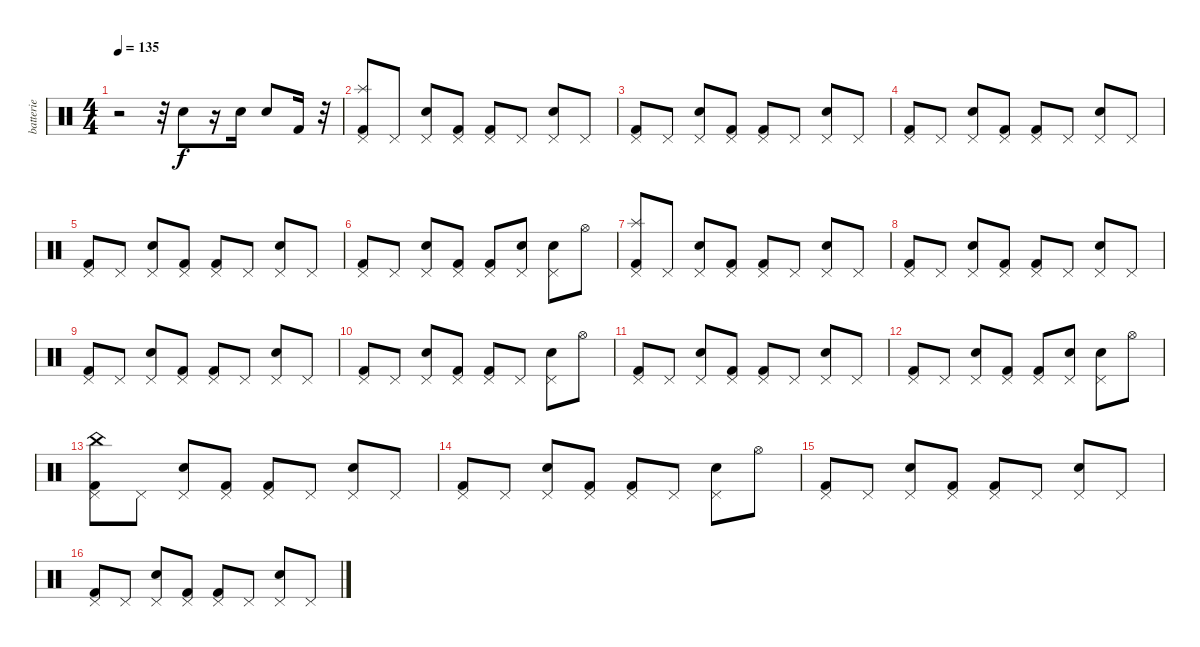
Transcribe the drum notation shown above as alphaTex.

\track ("batterie" "batterie") {instrument percussion}
\staff {score}
\articulation defaults
\ts (4 4)
\tempo 135
\clef neutral
\ks c
r.2{dy f} r.32 "Snare (hit) 2".8 r.16 "Snare (hit) 2".16 "Snare (hit) 2".8 "Kick (hit) 2".16 r.32 |
("Splash (hit)" "Pedal Hi-Hat (hit)" "Kick (hit) 2").8 "Pedal Hi-Hat (hit)".8 ("Pedal Hi-Hat (hit)" "Snare (hit) 2").8 ("Pedal Hi-Hat (hit)" "Kick (hit) 2").8 ("Pedal Hi-Hat (hit)" "Kick (hit) 2").8 "Pedal Hi-Hat (hit)".8 ("Pedal Hi-Hat (hit)" "Snare (hit) 2").8 "Pedal Hi-Hat (hit)".8 |
("Pedal Hi-Hat (hit)" "Kick (hit) 2").8 "Pedal Hi-Hat (hit)".8 ("Pedal Hi-Hat (hit)" "Snare (hit) 2").8 ("Pedal Hi-Hat (hit)" "Kick (hit) 2").8 ("Pedal Hi-Hat (hit)" "Kick (hit) 2").8 "Pedal Hi-Hat (hit)".8 ("Pedal Hi-Hat (hit)" "Snare (hit) 2").8 "Pedal Hi-Hat (hit)".8 |
("Pedal Hi-Hat (hit)" "Kick (hit) 2").8 "Pedal Hi-Hat (hit)".8 ("Pedal Hi-Hat (hit)" "Snare (hit) 2").8 ("Pedal Hi-Hat (hit)" "Kick (hit) 2").8 ("Pedal Hi-Hat (hit)" "Kick (hit) 2").8 "Pedal Hi-Hat (hit)".8 ("Pedal Hi-Hat (hit)" "Snare (hit) 2").8 "Pedal Hi-Hat (hit)".8 |
("Pedal Hi-Hat (hit)" "Kick (hit) 2").8 "Pedal Hi-Hat (hit)".8 ("Pedal Hi-Hat (hit)" "Snare (hit) 2").8 ("Pedal Hi-Hat (hit)" "Kick (hit) 2").8 ("Pedal Hi-Hat (hit)" "Kick (hit) 2").8 "Pedal Hi-Hat (hit)".8 ("Pedal Hi-Hat (hit)" "Snare (hit) 2").8 "Pedal Hi-Hat (hit)".8 |
("Pedal Hi-Hat (hit)" "Kick (hit) 2").8 "Pedal Hi-Hat (hit)".8 ("Pedal Hi-Hat (hit)" "Snare (hit) 2").8 ("Pedal Hi-Hat (hit)" "Kick (hit) 2").8 ("Pedal Hi-Hat (hit)" "Kick (hit) 2").8 ("Pedal Hi-Hat (hit)" "Snare (hit) 2").8 ("Pedal Hi-Hat (hit)" "Snare (hit) 2").8 "Hi-Hat (open)".8 |
("Splash (hit)" "Pedal Hi-Hat (hit)" "Kick (hit) 2").8 "Pedal Hi-Hat (hit)".8 ("Pedal Hi-Hat (hit)" "Snare (hit) 2").8 ("Pedal Hi-Hat (hit)" "Kick (hit) 2").8 ("Pedal Hi-Hat (hit)" "Kick (hit) 2").8 "Pedal Hi-Hat (hit)".8 ("Pedal Hi-Hat (hit)" "Snare (hit) 2").8 "Pedal Hi-Hat (hit)".8 |
("Pedal Hi-Hat (hit)" "Kick (hit) 2").8 "Pedal Hi-Hat (hit)".8 ("Pedal Hi-Hat (hit)" "Snare (hit) 2").8 ("Pedal Hi-Hat (hit)" "Kick (hit) 2").8 ("Pedal Hi-Hat (hit)" "Kick (hit) 2").8 "Pedal Hi-Hat (hit)".8 ("Pedal Hi-Hat (hit)" "Snare (hit) 2").8 "Pedal Hi-Hat (hit)".8 |
("Pedal Hi-Hat (hit)" "Kick (hit) 2").8 "Pedal Hi-Hat (hit)".8 ("Pedal Hi-Hat (hit)" "Snare (hit) 2").8 ("Pedal Hi-Hat (hit)" "Kick (hit) 2").8 ("Pedal Hi-Hat (hit)" "Kick (hit) 2").8 "Pedal Hi-Hat (hit)".8 ("Pedal Hi-Hat (hit)" "Snare (hit) 2").8 "Pedal Hi-Hat (hit)".8 |
("Pedal Hi-Hat (hit)" "Kick (hit) 2").8 "Pedal Hi-Hat (hit)".8 ("Pedal Hi-Hat (hit)" "Snare (hit) 2").8 ("Pedal Hi-Hat (hit)" "Kick (hit) 2").8 ("Pedal Hi-Hat (hit)" "Kick (hit) 2").8 "Pedal Hi-Hat (hit)".8 ("Pedal Hi-Hat (hit)" "Snare (hit) 2").8 "Hi-Hat (open)".8 |
("Pedal Hi-Hat (hit)" "Kick (hit) 2").8 "Pedal Hi-Hat (hit)".8 ("Pedal Hi-Hat (hit)" "Snare (hit) 2").8 ("Pedal Hi-Hat (hit)" "Kick (hit) 2").8 ("Pedal Hi-Hat (hit)" "Kick (hit) 2").8 "Pedal Hi-Hat (hit)".8 ("Pedal Hi-Hat (hit)" "Snare (hit) 2").8 "Pedal Hi-Hat (hit)".8 |
("Pedal Hi-Hat (hit)" "Kick (hit) 2").8 "Pedal Hi-Hat (hit)".8 ("Pedal Hi-Hat (hit)" "Snare (hit) 2").8 ("Pedal Hi-Hat (hit)" "Kick (hit) 2").8 ("Pedal Hi-Hat (hit)" "Kick (hit) 2").8 ("Pedal Hi-Hat (hit)" "Snare (hit) 2").8 ("Pedal Hi-Hat (hit)" "Snare (hit) 2").8 "Hi-Hat (open)".8 |
("China (hit)" "Pedal Hi-Hat (hit)" "Kick (hit) 2").8 "Pedal Hi-Hat (hit)".8 ("Pedal Hi-Hat (hit)" "Snare (hit) 2").8 ("Pedal Hi-Hat (hit)" "Kick (hit) 2").8 ("Pedal Hi-Hat (hit)" "Kick (hit) 2").8 "Pedal Hi-Hat (hit)".8 ("Pedal Hi-Hat (hit)" "Snare (hit) 2").8 "Pedal Hi-Hat (hit)".8 |
("Pedal Hi-Hat (hit)" "Kick (hit) 2").8 "Pedal Hi-Hat (hit)".8 ("Pedal Hi-Hat (hit)" "Snare (hit) 2").8 ("Pedal Hi-Hat (hit)" "Kick (hit) 2").8 ("Pedal Hi-Hat (hit)" "Kick (hit) 2").8 "Pedal Hi-Hat (hit)".8 ("Pedal Hi-Hat (hit)" "Snare (hit) 2").8 "Hi-Hat (open)".8 |
("Pedal Hi-Hat (hit)" "Kick (hit) 2").8 "Pedal Hi-Hat (hit)".8 ("Pedal Hi-Hat (hit)" "Snare (hit) 2").8 ("Pedal Hi-Hat (hit)" "Kick (hit) 2").8 ("Pedal Hi-Hat (hit)" "Kick (hit) 2").8 "Pedal Hi-Hat (hit)".8 ("Pedal Hi-Hat (hit)" "Snare (hit) 2").8 "Pedal Hi-Hat (hit)".8 |
("Pedal Hi-Hat (hit)" "Kick (hit) 2").8 "Pedal Hi-Hat (hit)".8 ("Pedal Hi-Hat (hit)" "Snare (hit) 2").8 ("Pedal Hi-Hat (hit)" "Kick (hit) 2").8 ("Pedal Hi-Hat (hit)" "Kick (hit) 2").8 "Pedal Hi-Hat (hit)".8 ("Pedal Hi-Hat (hit)" "Snare (hit) 2").8 "Pedal Hi-Hat (hit)".8
